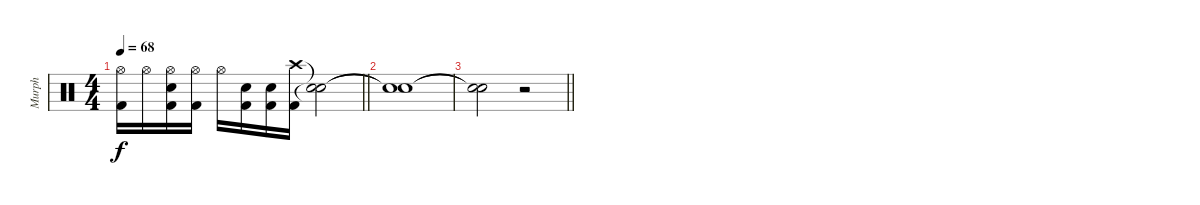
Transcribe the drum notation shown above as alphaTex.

\track ("Murph" "Murph") {instrument percussion}
\staff {score}
\articulation defaults
\ts (4 4)
\tempo 68
\clef neutral
\barLineRight lightlight
\ks c
("Kick (hit) 2" "Hi-Hat (open)").16{dy f} "Hi-Hat (open)".16 ("Kick (hit) 2" "Snare (hit) 2" "Hi-Hat (open)").16 ("Kick (hit) 2" "Hi-Hat (open)").16 "Hi-Hat (open)".16 ("Kick (hit) 2" "Snare (hit) 2").16 ("Kick (hit) 2" "Snare (hit) 2").16 ("Kick (hit) 2" "Crash high (hit)").16 ("Snare (hit)"{t} "Snare (hit)"{t}).2 |
("Snare (hit)"{t} "Snare (hit)"{t}).1 |
\barLineRight lightlight
("Snare (hit)"{t} "Snare (hit)"{t}).2 r.2
